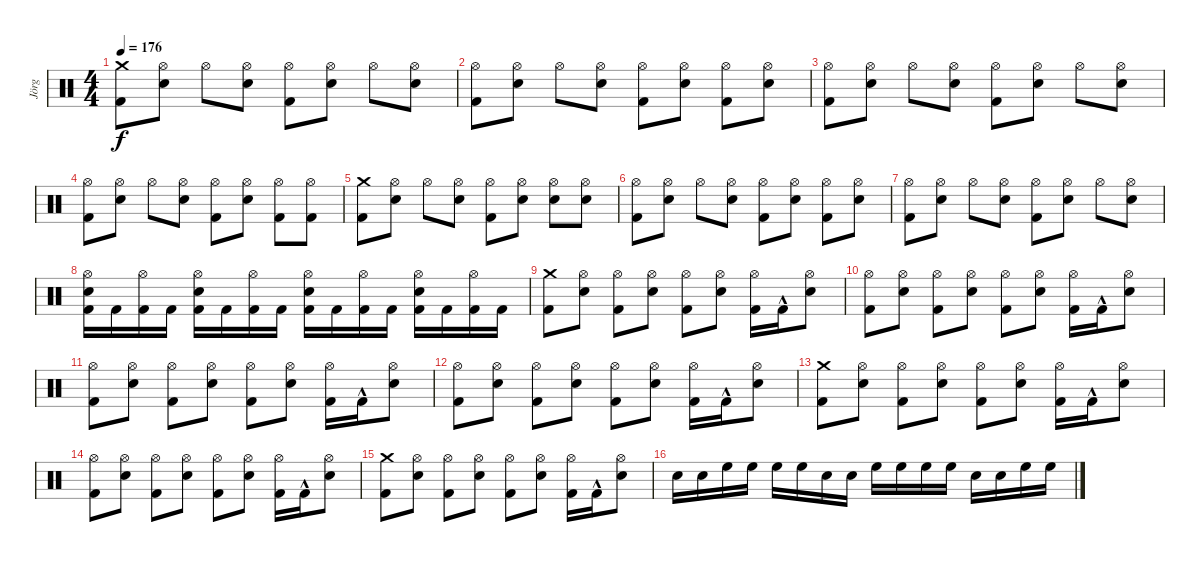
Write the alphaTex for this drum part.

\track ("Jörg" "Jörg") {instrument percussion}
\staff {score}
\articulation defaults
\ts (4 4)
\tempo 176
\clef neutral
\ks c
("Kick (hit) 2" "Crash medium (hit)").8{dy f} ("Snare (hit) 2" "Hi-Hat (open)").8 "Hi-Hat (open)".8 ("Snare (hit) 2" "Hi-Hat (open)").8 ("Kick (hit) 2" "Hi-Hat (open)").8 ("Snare (hit) 2" "Hi-Hat (open)").8 "Hi-Hat (open)".8 ("Snare (hit) 2" "Hi-Hat (open)").8 |
("Hi-Hat (open)" "Kick (hit) 2").8 ("Snare (hit) 2" "Hi-Hat (open)").8 "Hi-Hat (open)".8 ("Snare (hit) 2" "Hi-Hat (open)").8 ("Kick (hit) 2" "Hi-Hat (open)").8 ("Snare (hit) 2" "Hi-Hat (open)").8 ("Kick (hit) 2" "Hi-Hat (open)").8 ("Snare (hit) 2" "Hi-Hat (open)").8 |
("Hi-Hat (open)" "Kick (hit) 2").8 ("Snare (hit) 2" "Hi-Hat (open)").8 "Hi-Hat (open)".8 ("Snare (hit) 2" "Hi-Hat (open)").8 ("Kick (hit) 2" "Hi-Hat (open)").8 ("Snare (hit) 2" "Hi-Hat (open)").8 "Hi-Hat (open)".8 ("Snare (hit) 2" "Hi-Hat (open)").8 |
("Hi-Hat (open)" "Kick (hit) 2").8 ("Snare (hit) 2" "Hi-Hat (open)").8 "Hi-Hat (open)".8 ("Snare (hit) 2" "Hi-Hat (open)").8 ("Kick (hit) 2" "Hi-Hat (open)").8 ("Snare (hit) 2" "Hi-Hat (open)").8 ("Kick (hit) 2" "Hi-Hat (open)").8 ("Kick (hit) 2" "Hi-Hat (open)").8 |
("Kick (hit) 2" "Crash medium (hit)").8 ("Snare (hit) 2" "Hi-Hat (open)").8 "Hi-Hat (open)".8 ("Snare (hit) 2" "Hi-Hat (open)").8 ("Kick (hit) 2" "Hi-Hat (open)").8 ("Snare (hit) 2" "Hi-Hat (open)").8 ("Snare (hit) 2" "Hi-Hat (open)").8 ("Snare (hit) 2" "Hi-Hat (open)").8 |
("Hi-Hat (open)" "Kick (hit) 2").8 ("Snare (hit) 2" "Hi-Hat (open)").8 "Hi-Hat (open)".8 ("Snare (hit) 2" "Hi-Hat (open)").8 ("Kick (hit) 2" "Hi-Hat (open)").8 ("Snare (hit) 2" "Hi-Hat (open)").8 ("Kick (hit) 2" "Hi-Hat (open)").8 ("Snare (hit) 2" "Hi-Hat (open)").8 |
("Hi-Hat (open)" "Kick (hit) 2").8 ("Snare (hit) 2" "Hi-Hat (open)").8 "Hi-Hat (open)".8 ("Snare (hit) 2" "Hi-Hat (open)").8 ("Kick (hit) 2" "Hi-Hat (open)").8 ("Snare (hit) 2" "Hi-Hat (open)").8 "Hi-Hat (open)".8 ("Snare (hit) 2" "Hi-Hat (open)").8 |
("Hi-Hat (open)" "Snare (hit) 2" "Kick (hit) 2").16 "Kick (hit) 2".16 ("Hi-Hat (open)" "Kick (hit) 2").16 "Kick (hit) 2".16 ("Hi-Hat (open)" "Snare (hit) 2" "Kick (hit) 2").16 "Kick (hit) 2".16 ("Hi-Hat (open)" "Kick (hit) 2").16 "Kick (hit) 2".16 ("Hi-Hat (open)" "Snare (hit) 2" "Kick (hit) 2").16 "Kick (hit) 2".16 ("Hi-Hat (open)" "Kick (hit) 2").16 "Kick (hit) 2".16 ("Hi-Hat (open)" "Snare (hit) 2" "Kick (hit) 2").16 "Kick (hit) 2".16 ("Hi-Hat (open)" "Kick (hit) 2").16 "Kick (hit) 2".16 |
("Kick (hit) 2" "Crash medium (hit)").8 ("Snare (hit) 2" "Hi-Hat (open)").8 ("Kick (hit) 2" "Hi-Hat (open)").8 ("Snare (hit) 2" "Hi-Hat (open)").8 ("Kick (hit) 2" "Hi-Hat (open)").8 ("Snare (hit) 2" "Hi-Hat (open)").8 ("Kick (hit) 2" "Hi-Hat (open)").16 "Kick (hit) 2"{hac}.16 ("Snare (hit) 2" "Hi-Hat (open)").8 |
("Hi-Hat (open)" "Kick (hit) 2").8 ("Snare (hit) 2" "Hi-Hat (open)").8 ("Kick (hit) 2" "Hi-Hat (open)").8 ("Snare (hit) 2" "Hi-Hat (open)").8 ("Kick (hit) 2" "Hi-Hat (open)").8 ("Snare (hit) 2" "Hi-Hat (open)").8 ("Kick (hit) 2" "Hi-Hat (open)").16 "Kick (hit) 2"{hac}.16 ("Snare (hit) 2" "Hi-Hat (open)").8 |
("Hi-Hat (open)" "Kick (hit) 2").8 ("Snare (hit) 2" "Hi-Hat (open)").8 ("Kick (hit) 2" "Hi-Hat (open)").8 ("Snare (hit) 2" "Hi-Hat (open)").8 ("Kick (hit) 2" "Hi-Hat (open)").8 ("Snare (hit) 2" "Hi-Hat (open)").8 ("Kick (hit) 2" "Hi-Hat (open)").16 "Kick (hit) 2"{hac}.16 ("Snare (hit) 2" "Hi-Hat (open)").8 |
("Hi-Hat (open)" "Kick (hit) 2").8 ("Snare (hit) 2" "Hi-Hat (open)").8 ("Kick (hit) 2" "Hi-Hat (open)").8 ("Snare (hit) 2" "Hi-Hat (open)").8 ("Kick (hit) 2" "Hi-Hat (open)").8 ("Snare (hit) 2" "Hi-Hat (open)").8 ("Kick (hit) 2" "Hi-Hat (open)").16 "Kick (hit) 2"{hac}.16 ("Snare (hit) 2" "Hi-Hat (open)").8 |
("Kick (hit) 2" "Crash medium (hit)").8 ("Snare (hit) 2" "Hi-Hat (open)").8 ("Kick (hit) 2" "Hi-Hat (open)").8 ("Snare (hit) 2" "Hi-Hat (open)").8 ("Kick (hit) 2" "Hi-Hat (open)").8 ("Snare (hit) 2" "Hi-Hat (open)").8 ("Kick (hit) 2" "Hi-Hat (open)").16 "Kick (hit) 2"{hac}.16 ("Snare (hit) 2" "Hi-Hat (open)").8 |
("Hi-Hat (open)" "Kick (hit) 2").8 ("Snare (hit) 2" "Hi-Hat (open)").8 ("Kick (hit) 2" "Hi-Hat (open)").8 ("Snare (hit) 2" "Hi-Hat (open)").8 ("Kick (hit) 2" "Hi-Hat (open)").8 ("Snare (hit) 2" "Hi-Hat (open)").8 ("Kick (hit) 2" "Hi-Hat (open)").16 "Kick (hit) 2"{hac}.16 ("Snare (hit) 2" "Hi-Hat (open)").8 |
("Kick (hit) 2" "Crash medium (hit)").8 ("Snare (hit) 2" "Hi-Hat (open)").8 ("Kick (hit) 2" "Hi-Hat (open)").8 ("Snare (hit) 2" "Hi-Hat (open)").8 ("Kick (hit) 2" "Hi-Hat (open)").8 ("Snare (hit) 2" "Hi-Hat (open)").8 ("Kick (hit) 2" "Hi-Hat (open)").16 "Kick (hit) 2"{hac}.16 ("Snare (hit) 2" "Hi-Hat (open)").8 |
"Snare (hit) 2".16 "Snare (hit) 2".16 "High Floor Tom (hit)".16 "High Floor Tom (hit)".16 "High Floor Tom (hit)".16 "High Floor Tom (hit)".16 "Snare (hit) 2".16 "Snare (hit) 2".16 "High Floor Tom (hit)".16 "High Floor Tom (hit)".16 "High Floor Tom (hit)".16 "High Floor Tom (hit)".16 "Snare (hit) 2".16 "Snare (hit) 2".16 "High Floor Tom (hit)".16 "High Floor Tom (hit)".16
